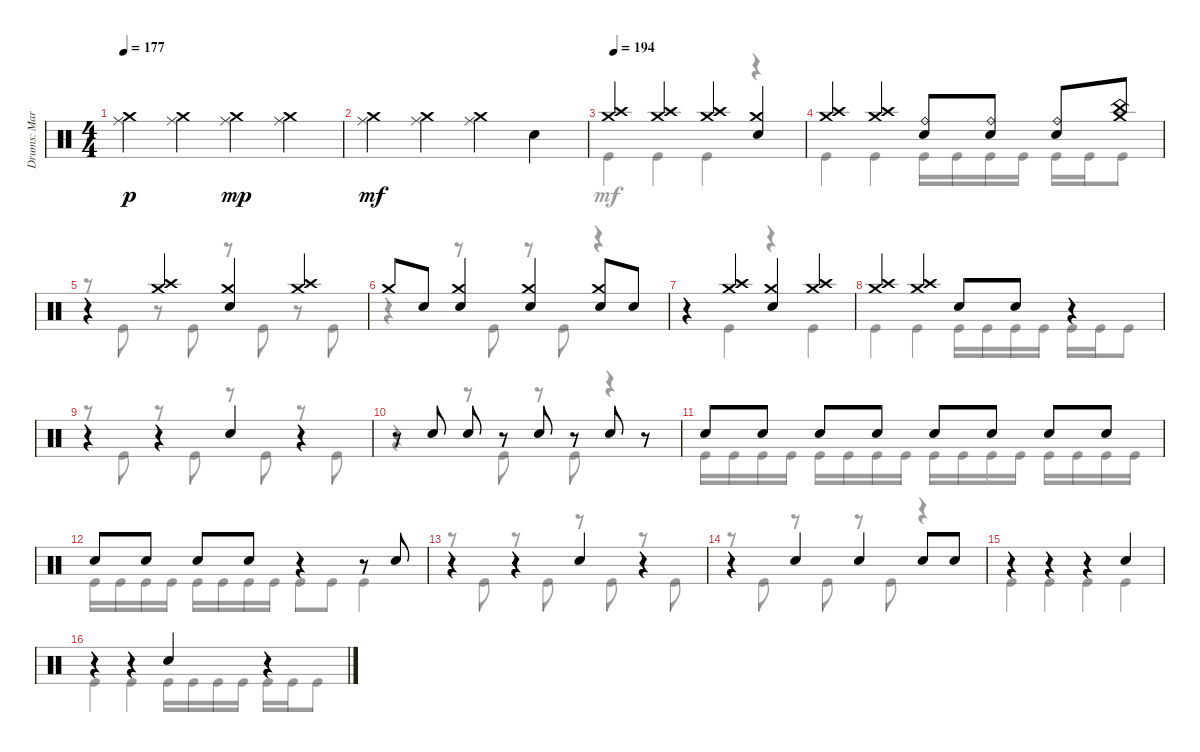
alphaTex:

\track ("Drums: Mario Duplantier" "Drums: Mar") {instrument percussion}
\staff {score}
\articulation defaults
\voice
\ts (4 4)
\tempo 177
\clef neutral
\ks c
("Ride (middle)" "Crash medium (hit)").4{dy p} ("Ride (middle)" "Crash medium (hit)").4 ("Ride (middle)" "Crash medium (hit)").4{dy mp} ("Ride (middle)" "Crash medium (hit)").4 |
("Ride (middle)" "Crash medium (hit)").4{dy mf} ("Ride (middle)" "Crash medium (hit)").4 ("Ride (middle)" "Crash medium (hit)").4 "Snare (hit) 2".4 |
\tempo 194
("Crash medium (hit)" "Crash high (hit)").4 ("Crash high (hit)" "Crash medium (hit)").4 ("Crash high (hit)" "Crash medium (hit)").4 ("Snare (hit) 2" "Crash medium (hit)").4 |
("Crash medium (hit)" "Crash high (hit)").4 ("Crash high (hit)" "Crash medium (hit)").4 ("Ride (bell)" "Snare (hit) 2").8 ("Ride (bell)" "Snare (hit) 2").8 ("Ride (bell)" "Snare (hit) 2").8 ("China (hit)" "Crash medium (hit)").8 |
r.4 ("Crash high (hit)" "Crash medium (hit)").4 ("Crash medium (hit)" "Snare (hit) 2").4 ("Crash medium (hit)" "Crash high (hit)").4 |
"Crash medium (hit)".8 "Snare (hit) 2".8 ("Snare (hit) 2" "Crash medium (hit)").4 ("Snare (hit) 2" "Crash medium (hit)").4 ("Snare (hit) 2" "Crash medium (hit)").8 "Snare (hit) 2".8 |
r.4 ("Crash high (hit)" "Crash medium (hit)").4 ("Snare (hit) 2" "Crash medium (hit)").4 ("Crash medium (hit)" "Crash high (hit)").4 |
("Crash high (hit)" "Crash medium (hit)").4 ("Crash medium (hit)" "Crash high (hit)").4 "Snare (hit) 2".8 "Snare (hit) 2".8 r.4 |
r.4 r.4 "Snare (hit) 2".4 r.4 |
r.8 "Snare (hit) 2".8 "Snare (hit) 2".8 r.8 "Snare (hit) 2".8 r.8 "Snare (hit) 2".8 r.8 |
"Snare (hit) 2".8 "Snare (hit) 2".8 "Snare (hit) 2".8 "Snare (hit) 2".8 "Snare (hit) 2".8 "Snare (hit) 2".8 "Snare (hit) 2".8 "Snare (hit) 2".8 |
"Snare (hit) 2".8 "Snare (hit) 2".8 "Snare (hit) 2".8 "Snare (hit) 2".8 r.4 r.8 "Snare (hit) 2".8 |
r.4 r.4 "Snare (hit) 2".4 r.4 |
r.4 "Snare (hit) 2".4 "Snare (hit) 2".4 "Snare (hit) 2".8 "Snare (hit) 2".8 |
r.4 r.4 r.4 "Snare (hit) 2".4 |
r.4 r.4 "Snare (hit) 2".4 r.4
\voice
\clef neutral
\ottava regular
\simile none
\ks c
|
|
"Kick (hit)".4 "Kick (hit)".4 "Kick (hit)".4 r.4 |
"Kick (hit)".4 "Kick (hit)".4 "Kick (hit)".16 "Kick (hit)".16 "Kick (hit)".16 "Kick (hit)".16 "Kick (hit)".16 "Kick (hit)".16 "Kick (hit)".8 |
r.8 "Kick (hit)".8 r.8 "Kick (hit)".8 r.8 "Kick (hit)".8 r.8 "Kick (hit)".8 |
r.4 r.8 "Kick (hit)".8 r.8 "Kick (hit)".8 r.4 |
r.4 "Kick (hit)".4 r.4 "Kick (hit)".4 |
"Kick (hit)".4 "Kick (hit)".4 "Kick (hit)".16 "Kick (hit)".16 "Kick (hit)".16 "Kick (hit)".16 "Kick (hit)".16 "Kick (hit)".16 "Kick (hit)".8 |
r.8 "Kick (hit)".8 r.8 "Kick (hit)".8 r.8 "Kick (hit)".8 r.8 "Kick (hit)".8 |
r.4 r.8 "Kick (hit)".8 r.8 "Kick (hit)".8 r.4 |
"Kick (hit)".16 "Kick (hit)".16 "Kick (hit)".16 "Kick (hit)".16 "Kick (hit)".16 "Kick (hit)".16 "Kick (hit)".16 "Kick (hit)".16 "Kick (hit)".16 "Kick (hit)".16 "Kick (hit)".16 "Kick (hit)".16 "Kick (hit)".16 "Kick (hit)".16 "Kick (hit)".16 "Kick (hit)".16 |
"Kick (hit)".16 "Kick (hit)".16 "Kick (hit)".16 "Kick (hit)".16 "Kick (hit)".16 "Kick (hit)".16 "Kick (hit)".16 "Kick (hit)".16 "Kick (hit)".8 "Kick (hit)".8 "Kick (hit)".4 |
r.8 "Kick (hit)".8 r.8 "Kick (hit)".8 r.8 "Kick (hit)".8 r.8 "Kick (hit)".8 |
r.8 "Kick (hit)".8 r.8 "Kick (hit)".8 r.8 "Kick (hit)".8 r.4 |
"Kick (hit)".4 "Kick (hit)".4 "Kick (hit)".4 "Kick (hit)".4 |
"Kick (hit)".4 "Kick (hit)".4 "Kick (hit)".16 "Kick (hit)".16 "Kick (hit)".16 "Kick (hit)".16 "Kick (hit)".16 "Kick (hit)".16 "Kick (hit)".8
